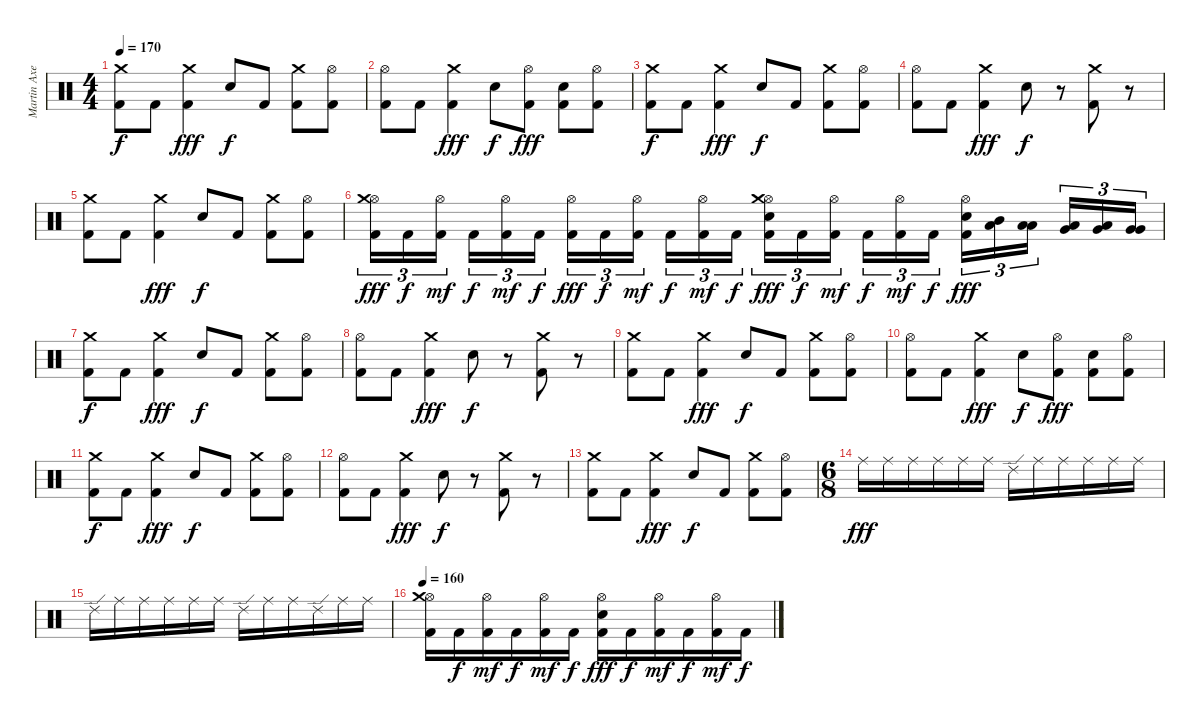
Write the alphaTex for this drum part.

\track ("Martin Axenrot" "Martin Axe") {instrument percussion}
\staff
\articulation defaults
\ts (4 4)
\tempo 170
\clef neutral
\ks c
("Crash medium (hit)" "Kick (hit) 2").8{dy f} "Kick (hit) 2".8 ("Crash medium (hit)" "Kick (hit) 2").4{dy fff} "Snare (hit) 2".8{dy f} "Kick (hit) 2".8 ("Crash medium (hit)" "Kick (hit) 2").8 ("Hi-Hat (open)" "Kick (hit) 2").8 |
("Hi-Hat (open)" "Kick (hit) 2").8 "Kick (hit) 2".8 ("Crash medium (hit)" "Kick (hit) 2").4{dy fff} "Snare (hit) 2".8{dy f} ("Hi-Hat (open)" "Kick (hit) 2").8{dy fff} ("Snare (hit) 2" "Kick (hit) 2").8 ("Hi-Hat (open)" "Kick (hit) 2").8 |
("Crash medium (hit)" "Kick (hit) 2").8{dy f} "Kick (hit) 2".8 ("Crash medium (hit)" "Kick (hit) 2").4{dy fff} "Snare (hit) 2".8{dy f} "Kick (hit) 2".8 ("Crash medium (hit)" "Kick (hit) 2").8 ("Hi-Hat (open)" "Kick (hit) 2").8 |
("Hi-Hat (open)" "Kick (hit) 2").8 "Kick (hit) 2".8 ("Crash medium (hit)" "Kick (hit) 2").4{dy fff} "Snare (hit) 2".8{dy f} r.8 ("Crash medium (hit)" "Kick (hit) 2").8 r.8 |
("Crash medium (hit)" "Kick (hit) 2").8 "Kick (hit) 2".8 ("Crash medium (hit)" "Kick (hit) 2").4{dy fff} "Snare (hit) 2".8{dy f} "Kick (hit) 2".8 ("Crash medium (hit)" "Kick (hit) 2").8 ("Hi-Hat (open)" "Kick (hit) 2").8 |
("Hi-Hat (open)" "Crash medium (hit)" "Kick (hit) 2").16{tu (3 2) dy fff} "Kick (hit) 2".16{tu (3 2) dy f} ("Hi-Hat (open)" "Kick (hit) 2").16{tu (3 2) dy mf beam splitsecondary} "Kick (hit) 2".16{tu (3 2) dy f} ("Hi-Hat (open)" "Kick (hit) 2").16{tu (3 2) dy mf} "Kick (hit) 2".16{tu (3 2) dy f} ("Hi-Hat (open)" "Kick (hit) 2").16{tu (3 2) dy fff} "Kick (hit) 2".16{tu (3 2) dy f} ("Hi-Hat (open)" "Kick (hit) 2").16{tu (3 2) dy mf beam splitsecondary} "Kick (hit) 2".16{tu (3 2) dy f} ("Hi-Hat (open)" "Kick (hit) 2").16{tu (3 2) dy mf} "Kick (hit) 2".16{tu (3 2) dy f} ("Hi-Hat (open)" "Crash medium (hit)" "Snare (hit) 2" "Kick (hit) 2").16{tu (3 2) dy fff} "Kick (hit) 2".16{tu (3 2) dy f} ("Hi-Hat (open)" "Kick (hit) 2").16{tu (3 2) dy mf beam splitsecondary} "Kick (hit) 2".16{tu (3 2) dy f} ("Hi-Hat (open)" "Kick (hit) 2").16{tu (3 2) dy mf} "Kick (hit) 2".16{tu (3 2) dy f} ("Hi-Hat (open)" "Snare (hit) 2" "Kick (hit) 2").16{tu (3 2) dy fff} ("Mid Tom (hit)" "Low Tom (hit)").16{tu (3 2)} ("Low Tom (hit)" "Low Tom (hit)").16{tu (3 2) beam splitsecondary} ("Low Tom (hit)" "Very Low Tom (hit)").16{tu (3 2)} ("Low Tom (hit)" "Very Low Tom (hit)").16{tu (3 2)} ("Very Low Tom (hit)" "Very Low Tom (hit)").16{tu (3 2)} |
("Crash medium (hit)" "Kick (hit) 2").8{dy f} "Kick (hit) 2".8 ("Crash medium (hit)" "Kick (hit) 2").4{dy fff} "Snare (hit) 2".8{dy f} "Kick (hit) 2".8 ("Crash medium (hit)" "Kick (hit) 2").8 ("Hi-Hat (open)" "Kick (hit) 2").8 |
("Hi-Hat (open)" "Kick (hit) 2").8 "Kick (hit) 2".8 ("Crash medium (hit)" "Kick (hit) 2").4{dy fff} "Snare (hit) 2".8{dy f} r.8 ("Crash medium (hit)" "Kick (hit) 2").8 r.8 |
("Crash medium (hit)" "Kick (hit) 2").8 "Kick (hit) 2".8 ("Crash medium (hit)" "Kick (hit) 2").4{dy fff} "Snare (hit) 2".8{dy f} "Kick (hit) 2".8 ("Crash medium (hit)" "Kick (hit) 2").8 ("Hi-Hat (open)" "Kick (hit) 2").8 |
("Hi-Hat (open)" "Kick (hit) 2").8 "Kick (hit) 2".8 ("Crash medium (hit)" "Kick (hit) 2").4{dy fff} "Snare (hit) 2".8{dy f} ("Hi-Hat (open)" "Kick (hit) 2").8{dy fff} ("Snare (hit) 2" "Kick (hit) 2").8 ("Hi-Hat (open)" "Kick (hit) 2").8 |
("Crash medium (hit)" "Kick (hit) 2").8{dy f} "Kick (hit) 2".8 ("Crash medium (hit)" "Kick (hit) 2").4{dy fff} "Snare (hit) 2".8{dy f} "Kick (hit) 2".8 ("Crash medium (hit)" "Kick (hit) 2").8 ("Hi-Hat (open)" "Kick (hit) 2").8 |
("Hi-Hat (open)" "Kick (hit) 2").8 "Kick (hit) 2".8 ("Crash medium (hit)" "Kick (hit) 2").4{dy fff} "Snare (hit) 2".8{dy f} r.8 ("Crash medium (hit)" "Kick (hit) 2").8 r.8 |
("Crash medium (hit)" "Kick (hit) 2").8 "Kick (hit) 2".8 ("Crash medium (hit)" "Kick (hit) 2").4{dy fff} "Snare (hit) 2".8{dy f} "Kick (hit) 2".8 ("Crash medium (hit)" "Kick (hit) 2").8 ("Hi-Hat (open)" "Kick (hit) 2").8 |
\ts (6 8)
"Ride (middle)".16{dy fff} "Ride (middle)".16 "Ride (middle)".16 "Ride (middle)".16 "Ride (middle)".16 "Ride (middle)".16 "Ride (edge) 2".16 "Ride (middle)".16 "Ride (middle)".16 "Ride (middle)".16 "Ride (middle)".16 "Ride (middle)".16 |
"Ride (edge) 2".16 "Ride (middle)".16 "Ride (middle)".16 "Ride (middle)".16 "Ride (middle)".16 "Ride (middle)".16 "Ride (edge) 2".16 "Ride (middle)".16 "Ride (middle)".16 "Ride (edge) 2".16 "Ride (middle)".16 "Ride (middle)".16 |
\tempo 160
("Hi-Hat (open)" "Crash medium (hit)" "Kick (hit) 2").16 "Kick (hit) 2".16{dy f} ("Hi-Hat (open)" "Kick (hit) 2").16{dy mf} "Kick (hit) 2".16{dy f} ("Hi-Hat (open)" "Kick (hit) 2").16{dy mf} "Kick (hit) 2".16{dy f} ("Hi-Hat (open)" "Snare (hit) 2" "Kick (hit) 2").16{dy fff} "Kick (hit) 2".16{dy f} ("Hi-Hat (open)" "Kick (hit) 2").16{dy mf} "Kick (hit) 2".16{dy f} ("Hi-Hat (open)" "Kick (hit) 2").16{dy mf} "Kick (hit) 2".16{dy f}
